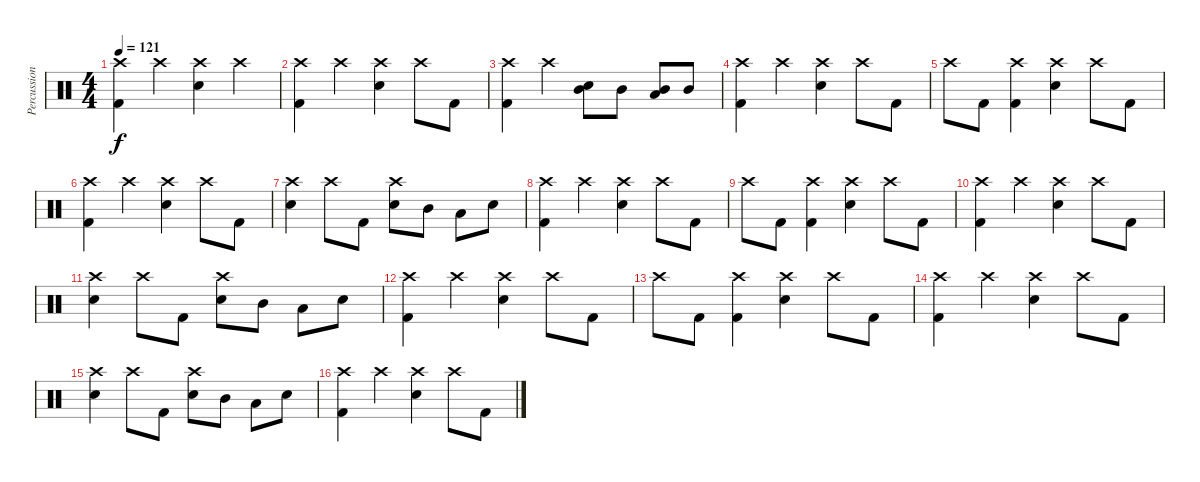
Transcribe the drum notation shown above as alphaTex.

\track ("Percussion" "Percussion") {instrument percussion}
\staff {score}
\articulation defaults
\ts (4 4)
\tempo 121
\clef neutral
\ks c
("Crash high (hit)" "Kick (hit) 2").4{dy f} "Crash high (hit)".4 ("Crash high (hit)" "Snare (hit) 2").4 "Crash high (hit)".4 |
("Crash high (hit)" "Kick (hit) 2").4 "Crash high (hit)".4 ("Crash high (hit)" "Snare (hit) 2").4 "Crash high (hit)".8 "Kick (hit) 2".8 |
("Crash high (hit)" "Kick (hit) 2").4 "Crash high (hit)".4 ("Snare (hit) 2" "Mid Tom (hit)").8 "Mid Tom (hit)".8 ("Low Tom (hit)" "Mid Tom (hit)").8 "Mid Tom (hit)".8 |
("Crash high (hit)" "Kick (hit) 2").4 "Crash high (hit)".4 ("Crash high (hit)" "Snare (hit) 2").4 "Crash high (hit)".8 "Kick (hit) 2".8 |
"Crash high (hit)".8 "Kick (hit) 2".8 ("Crash high (hit)" "Kick (hit) 2").4 ("Crash high (hit)" "Snare (hit) 2").4 "Crash high (hit)".8 "Kick (hit) 2".8 |
("Crash high (hit)" "Kick (hit) 2").4 "Crash high (hit)".4 ("Crash high (hit)" "Snare (hit) 2").4 "Crash high (hit)".8 "Kick (hit) 2".8 |
("Crash high (hit)" "Snare (hit) 2").4 "Crash high (hit)".8 "Kick (hit) 2".8 ("Crash high (hit)" "Snare (hit) 2").8 "Mid Tom (hit)".8 "Low Tom (hit)".8 "Snare (hit) 2".8 |
("Crash high (hit)" "Kick (hit) 2").4 "Crash high (hit)".4 ("Crash high (hit)" "Snare (hit) 2").4 "Crash high (hit)".8 "Kick (hit) 2".8 |
"Crash high (hit)".8 "Kick (hit) 2".8 ("Crash high (hit)" "Kick (hit) 2").4 ("Crash high (hit)" "Snare (hit) 2").4 "Crash high (hit)".8 "Kick (hit) 2".8 |
("Crash high (hit)" "Kick (hit) 2").4 "Crash high (hit)".4 ("Crash high (hit)" "Snare (hit) 2").4 "Crash high (hit)".8 "Kick (hit) 2".8 |
("Crash high (hit)" "Snare (hit) 2").4 "Crash high (hit)".8 "Kick (hit) 2".8 ("Crash high (hit)" "Snare (hit) 2").8 "Mid Tom (hit)".8 "Low Tom (hit)".8 "Snare (hit) 2".8 |
("Crash high (hit)" "Kick (hit) 2").4 "Crash high (hit)".4 ("Crash high (hit)" "Snare (hit) 2").4 "Crash high (hit)".8 "Kick (hit) 2".8 |
"Crash high (hit)".8 "Kick (hit) 2".8 ("Crash high (hit)" "Kick (hit) 2").4 ("Crash high (hit)" "Snare (hit) 2").4 "Crash high (hit)".8 "Kick (hit) 2".8 |
("Crash high (hit)" "Kick (hit) 2").4 "Crash high (hit)".4 ("Crash high (hit)" "Snare (hit) 2").4 "Crash high (hit)".8 "Kick (hit) 2".8 |
("Crash high (hit)" "Snare (hit) 2").4 "Crash high (hit)".8 "Kick (hit) 2".8 ("Crash high (hit)" "Snare (hit) 2").8 "Mid Tom (hit)".8 "Low Tom (hit)".8 "Snare (hit) 2".8 |
("Crash high (hit)" "Kick (hit) 2").4 "Crash high (hit)".4 ("Crash high (hit)" "Snare (hit) 2").4 "Crash high (hit)".8 "Kick (hit) 2".8
